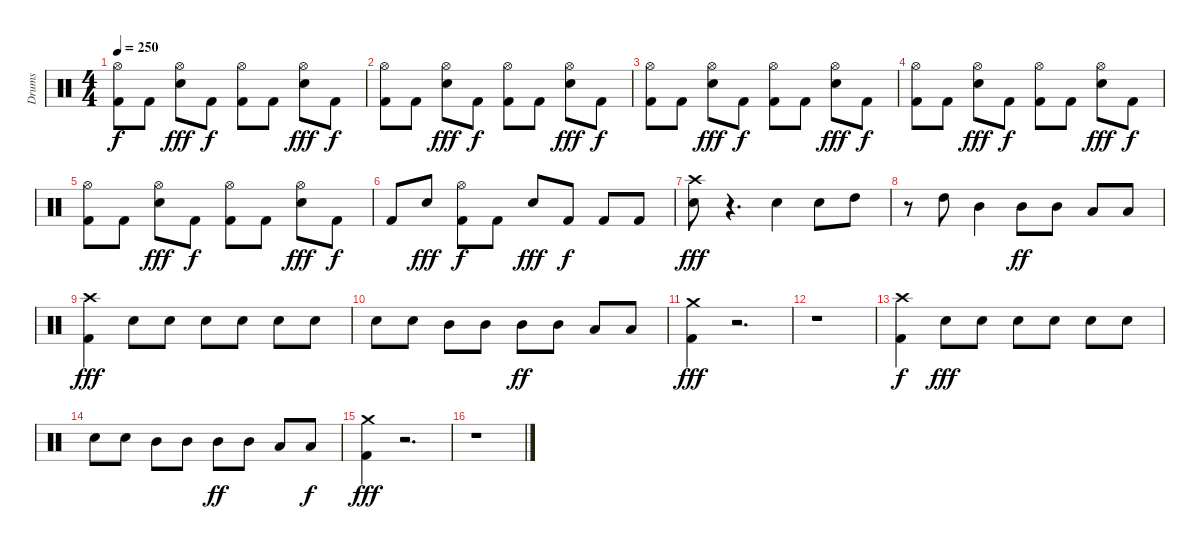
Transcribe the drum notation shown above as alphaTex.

\track ("Drums" "Drums") {instrument percussion}
\staff {score}
\articulation defaults
\ts (4 4)
\tempo 250
\clef neutral
\ks c
("Kick (hit) 2" "Hi-Hat (open)").8{dy f} "Kick (hit) 2".8 ("Hi-Hat (open)" "Snare (hit) 2").8{dy fff} "Kick (hit) 2".8{dy f} ("Hi-Hat (open)" "Kick (hit) 2").8 "Kick (hit) 2".8 ("Hi-Hat (open)" "Snare (hit) 2").8{dy fff} "Kick (hit) 2".8{dy f} |
("Kick (hit) 2" "Hi-Hat (open)").8 "Kick (hit) 2".8 ("Hi-Hat (open)" "Snare (hit) 2").8{dy fff} "Kick (hit) 2".8{dy f} ("Hi-Hat (open)" "Kick (hit) 2").8 "Kick (hit) 2".8 ("Hi-Hat (open)" "Snare (hit) 2").8{dy fff} "Kick (hit) 2".8{dy f} |
("Kick (hit) 2" "Hi-Hat (open)").8 "Kick (hit) 2".8 ("Hi-Hat (open)" "Snare (hit) 2").8{dy fff} "Kick (hit) 2".8{dy f} ("Hi-Hat (open)" "Kick (hit) 2").8 "Kick (hit) 2".8 ("Hi-Hat (open)" "Snare (hit) 2").8{dy fff} "Kick (hit) 2".8{dy f} |
("Kick (hit) 2" "Hi-Hat (open)").8 "Kick (hit) 2".8 ("Hi-Hat (open)" "Snare (hit) 2").8{dy fff} "Kick (hit) 2".8{dy f} ("Hi-Hat (open)" "Kick (hit) 2").8 "Kick (hit) 2".8 ("Hi-Hat (open)" "Snare (hit) 2").8{dy fff} "Kick (hit) 2".8{dy f} |
("Kick (hit) 2" "Hi-Hat (open)").8 "Kick (hit) 2".8 ("Hi-Hat (open)" "Snare (hit) 2").8{dy fff} "Kick (hit) 2".8{dy f} ("Hi-Hat (open)" "Kick (hit) 2").8 "Kick (hit) 2".8 ("Hi-Hat (open)" "Snare (hit) 2").8{dy fff} "Kick (hit) 2".8{dy f} |
"Kick (hit) 2".8 "Snare (hit) 2".8{dy fff} ("Hi-Hat (open)" "Kick (hit) 2").8{dy f} "Kick (hit) 2".8 "Snare (hit) 2".8{dy fff} "Kick (hit) 2".8{dy f} "Kick (hit) 2".8 "Kick (hit) 2".8 |
("Crash high (hit)" "Snare (hit) 2").8{dy fff} r.4{d} "Snare (hit) 2".4 "Snare (hit) 2".8 "High Tom (hit)".8 |
r.8 "High Tom (hit)".8 "Mid Tom (hit)".4 "Mid Tom (hit)".8{dy ff} "Mid Tom (hit)".8 "Low Tom (hit)".8 "Low Tom (hit)".8 |
("Crash high (hit)" "Kick (hit) 2").4{dy fff} "Snare (hit) 2".8 "Snare (hit) 2".8 "Snare (hit) 2".8 "Snare (hit) 2".8 "Snare (hit) 2".8 "Snare (hit) 2".8 |
"Snare (hit) 2".8 "Snare (hit) 2".8 "Mid Tom (hit)".8 "Mid Tom (hit)".8 "Mid Tom (hit)".8{dy ff} "Mid Tom (hit)".8 "Low Tom (hit)".8 "Low Tom (hit)".8 |
("Crash medium (hit)" "Kick (hit) 2").4{dy fff} r.2{d} |
r.1 |
("Crash high (hit)" "Kick (hit) 2").4{dy f} "Snare (hit) 2".8{dy fff} "Snare (hit) 2".8 "Snare (hit) 2".8 "Snare (hit) 2".8 "Snare (hit) 2".8 "Snare (hit) 2".8 |
"Snare (hit) 2".8 "Snare (hit) 2".8 "Mid Tom (hit)".8 "Mid Tom (hit)".8 "Mid Tom (hit)".8{dy ff} "Mid Tom (hit)".8 "Low Tom (hit)".8 "Low Tom (hit)".8{dy f} |
("Crash medium (hit)" "Kick (hit) 2").4{dy fff} r.2{d} |
r.1
